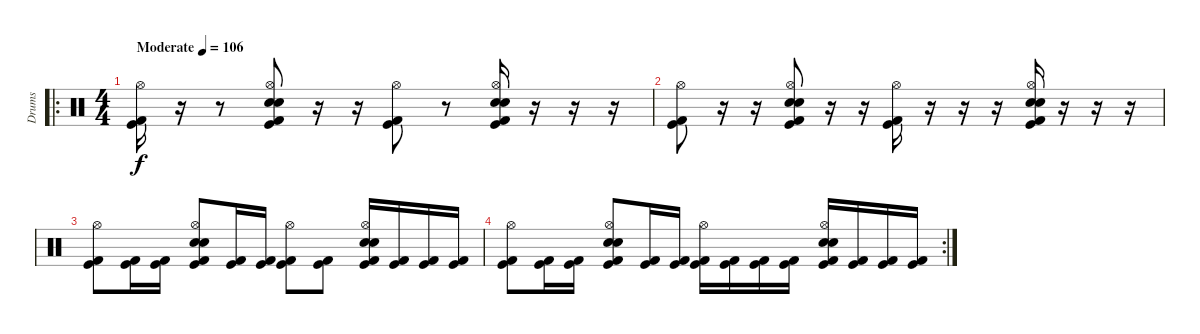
\track ("Drums" "Drums") {instrument percussion}
\staff {score}
\articulation defaults
\ro
\ts (4 4)
\tempo (106 "Moderate")
\clef neutral
\ks c
("Kick (hit)" "Kick (hit) 2" "Hi-Hat (open)").16{dy f} r.16 r.8 ("Kick (hit)" "Kick (hit) 2" "Hi-Hat (open)" "Snare (hit) 2" "Electric Snare (hit)").8 r.16 r.16 ("Kick (hit)" "Kick (hit) 2" "Hi-Hat (open)").8 r.8 ("Kick (hit)" "Kick (hit) 2" "Hi-Hat (open)" "Snare (hit) 2" "Electric Snare (hit)").16 r.16 r.16 r.16 |
("Kick (hit)" "Kick (hit) 2" "Hi-Hat (open)").8 r.16 r.16 ("Kick (hit)" "Kick (hit) 2" "Hi-Hat (open)" "Snare (hit) 2" "Electric Snare (hit)").8 r.16 r.16 ("Kick (hit)" "Kick (hit) 2" "Hi-Hat (open)").16 r.16 r.16 r.16 ("Kick (hit)" "Kick (hit) 2" "Hi-Hat (open)" "Snare (hit) 2" "Electric Snare (hit)").16 r.16 r.16 r.16 |
("Kick (hit)" "Kick (hit) 2" "Hi-Hat (open)").8 ("Kick (hit)" "Kick (hit) 2").16 ("Kick (hit)" "Kick (hit) 2").16 ("Kick (hit)" "Kick (hit) 2" "Hi-Hat (open)" "Snare (hit) 2" "Electric Snare (hit)").8 ("Kick (hit)" "Kick (hit) 2").16 ("Kick (hit)" "Kick (hit) 2").16 ("Kick (hit)" "Kick (hit) 2" "Hi-Hat (open)").8 ("Kick (hit)" "Kick (hit) 2").8 ("Kick (hit)" "Kick (hit) 2" "Hi-Hat (open)" "Snare (hit) 2" "Electric Snare (hit)").16 ("Kick (hit)" "Kick (hit) 2").16 ("Kick (hit)" "Kick (hit) 2").16 ("Kick (hit)" "Kick (hit) 2").16 |
\rc 2
("Kick (hit)" "Kick (hit) 2" "Hi-Hat (open)").8 ("Kick (hit)" "Kick (hit) 2").16 ("Kick (hit)" "Kick (hit) 2").16 ("Kick (hit)" "Kick (hit) 2" "Hi-Hat (open)" "Snare (hit) 2" "Electric Snare (hit)").8 ("Kick (hit)" "Kick (hit) 2").16 ("Kick (hit)" "Kick (hit) 2").16 ("Kick (hit)" "Kick (hit) 2" "Hi-Hat (open)").16 ("Kick (hit)" "Kick (hit) 2").16 ("Kick (hit)" "Kick (hit) 2").16 ("Kick (hit)" "Kick (hit) 2").16 ("Kick (hit)" "Kick (hit) 2" "Hi-Hat (open)" "Snare (hit) 2" "Electric Snare (hit)").16 ("Kick (hit)" "Kick (hit) 2").16 ("Kick (hit)" "Kick (hit) 2").16 ("Kick (hit)" "Kick (hit) 2").16
